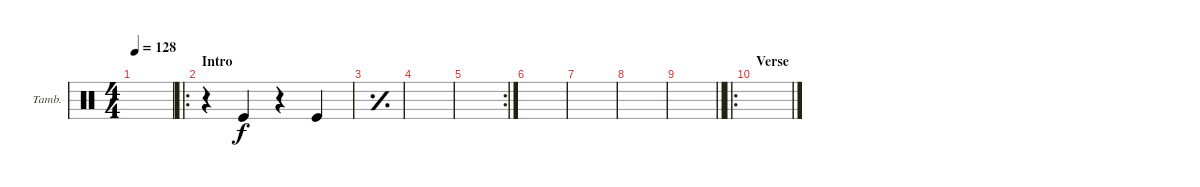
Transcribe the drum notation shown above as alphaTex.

\defaultSystemsLayout 4
\bracketExtendMode groupsimilarinstruments
\firstSystemTrackNameOrientation horizontal
\otherSystemsTrackNameOrientation horizontal
\track ("Tambourine" "Tamb.") {instrument percussion}
\staff {score}
\articulation defaults
\ts (4 4)
\tempo 128
\clef neutral
\scale
0.447368
\ks c
|
\ro
\section ("" "Intro")
\scale
0.302632 r.4 "Kick (hit)".4 r.4 "Kick (hit)".4 |
\simile simple
\scale
0.25 |
\scale
0.322034 |
\rc 2
\scale
0.355932 |
\scale
0.322034 |
\scale
0.333333 |
\scale
0.333333 |
\scale
0.333333
\barLineRight lightlight
|
\ro
\section ("" "Verse")
\scale
0.377049 |
\scale
0.311475 |
\scale
0.311475 |
\scale
0.333333 |
\scale
0.333333 |
\scale
0.333333 |
\scale
0.322034
